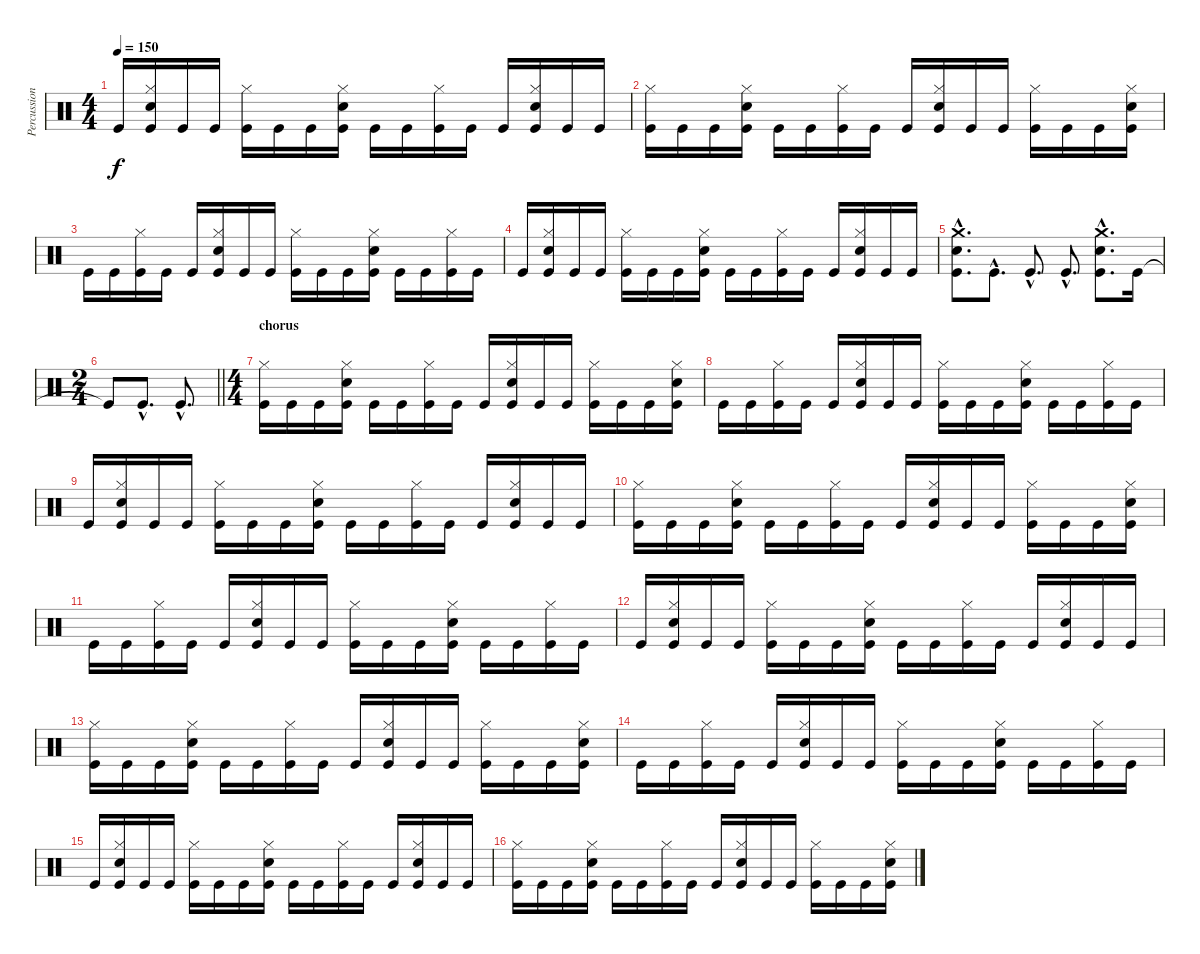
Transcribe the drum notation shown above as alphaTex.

\track ("Percussion" "Percussion") {instrument percussion}
\staff {score}
\articulation defaults
\ts (4 4)
\tempo 150
\clef neutral
\ks c "Kick (hit)".16{dy f}
("Hi-Hat (closed)" "Kick (hit)" "Snare (hit) 2").16 "Kick (hit)".16 "Kick (hit)".16 ("Hi-Hat (closed)" "Kick (hit)").16 "Kick (hit)".16 "Kick (hit)".16 ("Hi-Hat (closed)" "Kick (hit)" "Snare (hit) 2").16 "Kick (hit)".16 "Kick (hit)".16 ("Hi-Hat (closed)" "Kick (hit)").16 "Kick (hit)".16 "Kick (hit)".16 ("Hi-Hat (closed)" "Kick (hit)" "Snare (hit) 2").16 "Kick (hit)".16 "Kick (hit)".16 |
("Hi-Hat (closed)" "Kick (hit)").16 "Kick (hit)".16 "Kick (hit)".16 ("Hi-Hat (closed)" "Kick (hit)" "Snare (hit) 2").16 "Kick (hit)".16 "Kick (hit)".16 ("Hi-Hat (closed)" "Kick (hit)").16 "Kick (hit)".16 "Kick (hit)".16 ("Hi-Hat (closed)" "Kick (hit)" "Snare (hit) 2").16 "Kick (hit)".16 "Kick (hit)".16 ("Hi-Hat (closed)" "Kick (hit)").16 "Kick (hit)".16 "Kick (hit)".16 ("Hi-Hat (closed)" "Kick (hit)" "Snare (hit) 2").16 |
"Kick (hit)".16 "Kick (hit)".16 ("Hi-Hat (closed)" "Kick (hit)").16 "Kick (hit)".16 "Kick (hit)".16 ("Hi-Hat (closed)" "Kick (hit)" "Snare (hit) 2").16 "Kick (hit)".16 "Kick (hit)".16 ("Hi-Hat (closed)" "Kick (hit)").16 "Kick (hit)".16 "Kick (hit)".16 ("Hi-Hat (closed)" "Kick (hit)" "Snare (hit) 2").16 "Kick (hit)".16 "Kick (hit)".16 ("Hi-Hat (closed)" "Kick (hit)").16 "Kick (hit)".16 |
"Kick (hit)".16 ("Hi-Hat (closed)" "Kick (hit)" "Snare (hit) 2").16 "Kick (hit)".16 "Kick (hit)".16 ("Hi-Hat (closed)" "Kick (hit)").16 "Kick (hit)".16 "Kick (hit)".16 ("Hi-Hat (closed)" "Kick (hit)" "Snare (hit) 2").16 "Kick (hit)".16 "Kick (hit)".16 ("Hi-Hat (closed)" "Kick (hit)").16 "Kick (hit)".16 "Kick (hit)".16 ("Hi-Hat (closed)" "Kick (hit)" "Snare (hit) 2").16 "Kick (hit)".16 "Kick (hit)".16 |
("Kick (hit)"{hac} "Snare (hit) 2"{hac} "Crash medium (hit)"{hac}).8{d} "Kick (hit)"{hac}.8{d} "Kick (hit)"{hac}.8{d} "Kick (hit)"{hac}.8{d} ("Kick (hit)"{hac} "Snare (hit) 2"{hac} "Crash medium (hit)"{hac}).8{d} "Kick (hit)".16 |
\ts (2 4)
\barLineRight lightlight "Kick (hit)"{t}.8 "Kick (hit)"{hac}.8{d} "Kick (hit)"{hac}.8{d}
|
\ts (4 4)
\section ("" "chorus")
("Hi-Hat (closed)" "Kick (hit)").16 "Kick (hit)".16 "Kick (hit)".16 ("Hi-Hat (closed)" "Kick (hit)" "Snare (hit) 2").16 "Kick (hit)".16 "Kick (hit)".16 ("Hi-Hat (closed)" "Kick (hit)").16 "Kick (hit)".16 "Kick (hit)".16 ("Hi-Hat (closed)" "Kick (hit)" "Snare (hit) 2").16 "Kick (hit)".16 "Kick (hit)".16 ("Hi-Hat (closed)" "Kick (hit)").16 "Kick (hit)".16 "Kick (hit)".16 ("Hi-Hat (closed)" "Kick (hit)" "Snare (hit) 2").16 |
"Kick (hit)".16 "Kick (hit)".16 ("Hi-Hat (closed)" "Kick (hit)").16 "Kick (hit)".16 "Kick (hit)".16 ("Hi-Hat (closed)" "Kick (hit)" "Snare (hit) 2").16 "Kick (hit)".16 "Kick (hit)".16 ("Hi-Hat (closed)" "Kick (hit)").16 "Kick (hit)".16 "Kick (hit)".16 ("Hi-Hat (closed)" "Kick (hit)" "Snare (hit) 2").16 "Kick (hit)".16 "Kick (hit)".16 ("Hi-Hat (closed)" "Kick (hit)").16 "Kick (hit)".16 |
"Kick (hit)".16 ("Hi-Hat (closed)" "Kick (hit)" "Snare (hit) 2").16 "Kick (hit)".16 "Kick (hit)".16 ("Hi-Hat (closed)" "Kick (hit)").16 "Kick (hit)".16 "Kick (hit)".16 ("Hi-Hat (closed)" "Kick (hit)" "Snare (hit) 2").16 "Kick (hit)".16 "Kick (hit)".16 ("Hi-Hat (closed)" "Kick (hit)").16 "Kick (hit)".16 "Kick (hit)".16 ("Hi-Hat (closed)" "Kick (hit)" "Snare (hit) 2").16 "Kick (hit)".16 "Kick (hit)".16 |
("Hi-Hat (closed)" "Kick (hit)").16 "Kick (hit)".16 "Kick (hit)".16 ("Hi-Hat (closed)" "Kick (hit)" "Snare (hit) 2").16 "Kick (hit)".16 "Kick (hit)".16 ("Hi-Hat (closed)" "Kick (hit)").16 "Kick (hit)".16 "Kick (hit)".16 ("Hi-Hat (closed)" "Kick (hit)" "Snare (hit) 2").16 "Kick (hit)".16 "Kick (hit)".16 ("Hi-Hat (closed)" "Kick (hit)").16 "Kick (hit)".16 "Kick (hit)".16 ("Hi-Hat (closed)" "Kick (hit)" "Snare (hit) 2").16 |
"Kick (hit)".16 "Kick (hit)".16 ("Hi-Hat (closed)" "Kick (hit)").16 "Kick (hit)".16 "Kick (hit)".16 ("Hi-Hat (closed)" "Kick (hit)" "Snare (hit) 2").16 "Kick (hit)".16 "Kick (hit)".16 ("Hi-Hat (closed)" "Kick (hit)").16 "Kick (hit)".16 "Kick (hit)".16 ("Hi-Hat (closed)" "Kick (hit)" "Snare (hit) 2").16 "Kick (hit)".16 "Kick (hit)".16 ("Hi-Hat (closed)" "Kick (hit)").16 "Kick (hit)".16 |
"Kick (hit)".16 ("Hi-Hat (closed)" "Kick (hit)" "Snare (hit) 2").16 "Kick (hit)".16 "Kick (hit)".16 ("Hi-Hat (closed)" "Kick (hit)").16 "Kick (hit)".16 "Kick (hit)".16 ("Hi-Hat (closed)" "Kick (hit)" "Snare (hit) 2").16 "Kick (hit)".16 "Kick (hit)".16 ("Hi-Hat (closed)" "Kick (hit)").16 "Kick (hit)".16 "Kick (hit)".16 ("Hi-Hat (closed)" "Kick (hit)" "Snare (hit) 2").16 "Kick (hit)".16 "Kick (hit)".16 |
("Hi-Hat (closed)" "Kick (hit)").16 "Kick (hit)".16 "Kick (hit)".16 ("Hi-Hat (closed)" "Kick (hit)" "Snare (hit) 2").16 "Kick (hit)".16 "Kick (hit)".16 ("Hi-Hat (closed)" "Kick (hit)").16 "Kick (hit)".16 "Kick (hit)".16 ("Hi-Hat (closed)" "Kick (hit)" "Snare (hit) 2").16 "Kick (hit)".16 "Kick (hit)".16 ("Hi-Hat (closed)" "Kick (hit)").16 "Kick (hit)".16 "Kick (hit)".16 ("Hi-Hat (closed)" "Kick (hit)" "Snare (hit) 2").16 |
"Kick (hit)".16 "Kick (hit)".16 ("Hi-Hat (closed)" "Kick (hit)").16 "Kick (hit)".16 "Kick (hit)".16 ("Hi-Hat (closed)" "Kick (hit)" "Snare (hit) 2").16 "Kick (hit)".16 "Kick (hit)".16 ("Hi-Hat (closed)" "Kick (hit)").16 "Kick (hit)".16 "Kick (hit)".16 ("Hi-Hat (closed)" "Kick (hit)" "Snare (hit) 2").16 "Kick (hit)".16 "Kick (hit)".16 ("Hi-Hat (closed)" "Kick (hit)").16 "Kick (hit)".16 |
"Kick (hit)".16 ("Hi-Hat (closed)" "Kick (hit)" "Snare (hit) 2").16 "Kick (hit)".16 "Kick (hit)".16 ("Hi-Hat (closed)" "Kick (hit)").16 "Kick (hit)".16 "Kick (hit)".16 ("Hi-Hat (closed)" "Kick (hit)" "Snare (hit) 2").16 "Kick (hit)".16 "Kick (hit)".16 ("Hi-Hat (closed)" "Kick (hit)").16 "Kick (hit)".16 "Kick (hit)".16 ("Hi-Hat (closed)" "Kick (hit)" "Snare (hit) 2").16 "Kick (hit)".16 "Kick (hit)".16 |
("Hi-Hat (closed)" "Kick (hit)").16 "Kick (hit)".16 "Kick (hit)".16 ("Hi-Hat (closed)" "Kick (hit)" "Snare (hit) 2").16 "Kick (hit)".16 "Kick (hit)".16 ("Hi-Hat (closed)" "Kick (hit)").16 "Kick (hit)".16 "Kick (hit)".16 ("Hi-Hat (closed)" "Kick (hit)" "Snare (hit) 2").16 "Kick (hit)".16 "Kick (hit)".16 ("Hi-Hat (closed)" "Kick (hit)").16 "Kick (hit)".16 "Kick (hit)".16 ("Hi-Hat (closed)" "Kick (hit)" "Snare (hit) 2").16
